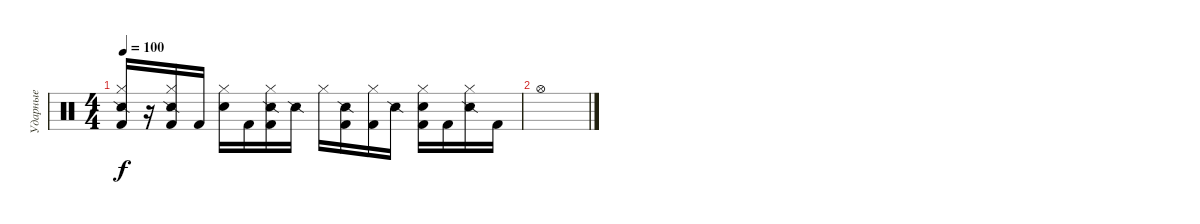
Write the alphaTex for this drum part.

\track ("Ударные" "Ударные") {instrument percussion}
\staff {score}
\articulation defaults
\ts (4 4)
\tempo 100
\clef neutral
\ks c
("Kick (hit) 2" "Hi-Hat (closed)" "Snare (side stick) 2").16{dy f} r.16 ("Kick (hit) 2" "Hi-Hat (closed)" "Snare (side stick) 2").16 "Kick (hit) 2".16 ("Snare (hit) 2" "Hi-Hat (closed)").16 "Kick (hit) 2".16 ("Kick (hit) 2" "Hi-Hat (closed)" "Snare (side stick) 2").16 "Snare (side stick) 2".16 "Hi-Hat (closed)".16 ("Kick (hit) 2" "Snare (side stick) 2").16 ("Kick (hit) 2" "Hi-Hat (closed)").16 "Snare (side stick) 2".16 ("Kick (hit) 2" "Snare (hit) 2" "Hi-Hat (closed)").16 "Kick (hit) 2".16 ("Hi-Hat (closed)" "Snare (side stick) 2").16 "Kick (hit) 2".16 |
"Hi-Hat (open)".1
